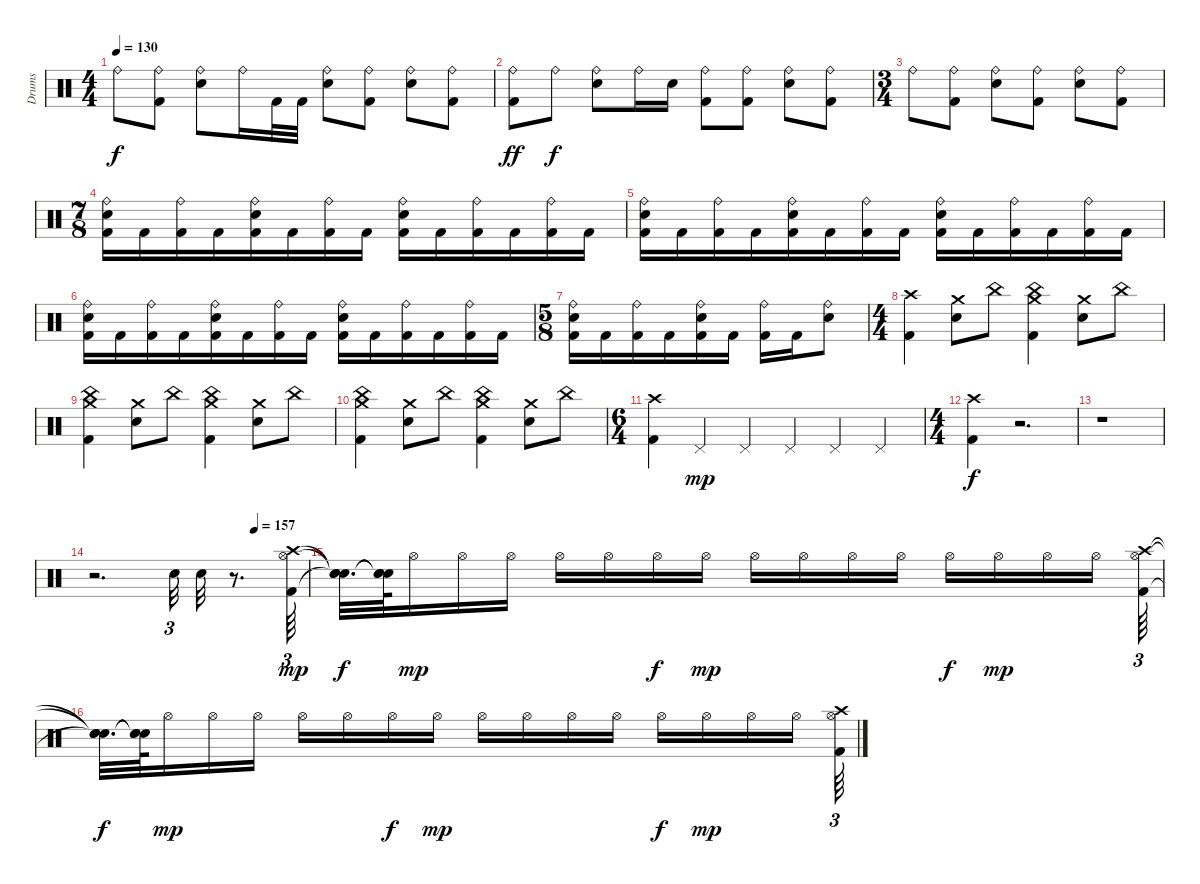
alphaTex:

\track ("Drums" "Drums") {instrument percussion}
\staff {score}
\articulation defaults
\ts (4 4)
\tempo 130
\clef neutral
\ks c "Ride (bell)".8{dy f}
("Kick (hit) 2" "Ride (bell)").8 ("Electric Snare (hit)" "Ride (bell)").8 "Ride (bell)".16 "Kick (hit) 2".32 "Kick (hit) 2".32 ("Electric Snare (hit)" "Ride (bell)").8 ("Kick (hit) 2" "Ride (bell)").8 ("Electric Snare (hit)" "Ride (bell)").8 ("Kick (hit) 2" "Ride (bell)").8 |
("Kick (hit) 2" "Ride (bell)").8{dy ff} "Ride (bell)".8{dy f} ("Electric Snare (hit)" "Ride (bell)").8 "Ride (bell)".16 "Electric Snare (hit)".16 ("Kick (hit) 2" "Ride (bell)").8 ("Kick (hit) 2" "Ride (bell)").8 ("Electric Snare (hit)" "Ride (bell)").8 ("Kick (hit) 2" "Ride (bell)").8 |
\ts (3 4)
"Ride (bell)".8 ("Kick (hit) 2" "Ride (bell)").8 ("Electric Snare (hit)" "Ride (bell)").8 ("Ride (bell)" "Kick (hit) 2").8 ("Electric Snare (hit)" "Ride (bell)").8 ("Kick (hit) 2" "Ride (bell)").8 |
\ts (7 8)
("Kick (hit) 2" "Electric Snare (hit)" "Ride (bell)").16 "Kick (hit) 2".16 ("Kick (hit) 2" "Ride (bell)").16 "Kick (hit) 2".16 ("Kick (hit) 2" "Electric Snare (hit)" "Ride (bell)").16 "Kick (hit) 2".16 ("Kick (hit) 2" "Ride (bell)").16 "Kick (hit) 2".16 ("Kick (hit) 2" "Electric Snare (hit)" "Ride (bell)").16 "Kick (hit) 2".16 ("Kick (hit) 2" "Ride (bell)").16 "Kick (hit) 2".16 ("Kick (hit) 2" "Ride (bell)").16 "Kick (hit) 2".16 |
("Kick (hit) 2" "Ride (bell)" "Electric Snare (hit)").16 "Kick (hit) 2".16 ("Kick (hit) 2" "Ride (bell)").16 "Kick (hit) 2".16 ("Kick (hit) 2" "Ride (bell)" "Electric Snare (hit)").16 "Kick (hit) 2".16 ("Kick (hit) 2" "Ride (bell)").16 "Kick (hit) 2".16 ("Kick (hit) 2" "Ride (bell)" "Electric Snare (hit)").16 "Kick (hit) 2".16 ("Kick (hit) 2" "Ride (bell)").16 "Kick (hit) 2".16 ("Kick (hit) 2" "Ride (bell)").16 "Kick (hit) 2".16 |
("Kick (hit) 2" "Ride (bell)" "Electric Snare (hit)").16 "Kick (hit) 2".16 ("Kick (hit) 2" "Ride (bell)").16 "Kick (hit) 2".16 ("Kick (hit) 2" "Electric Snare (hit)" "Ride (bell)").16 "Kick (hit) 2".16 ("Kick (hit) 2" "Ride (bell)").16 "Kick (hit) 2".16 ("Kick (hit) 2" "Electric Snare (hit)" "Ride (bell)").16 "Kick (hit) 2".16 ("Kick (hit) 2" "Ride (bell)").16 "Kick (hit) 2".16 ("Kick (hit) 2" "Ride (bell)").16 "Kick (hit) 2".16 |
\ts (5 8)
("Kick (hit) 2" "Electric Snare (hit)" "Ride (bell)").16 "Kick (hit) 2".16 ("Kick (hit) 2" "Ride (bell)").16 "Kick (hit) 2".16 ("Kick (hit) 2" "Ride (bell)" "Electric Snare (hit)").16 "Kick (hit) 2".16 ("Kick (hit) 2" "Ride (bell)").16 "Kick (hit) 2".16 ("Electric Snare (hit)" "Ride (bell)").8 |
\ts (4 4)
("Crash high (hit)" "Kick (hit) 2").4 ("Electric Snare (hit)" "Crash medium (hit)").8 "China (hit)".8 ("Kick (hit) 2" "Crash medium (hit)" "China (hit)").4 ("Electric Snare (hit)" "Crash medium (hit)").8 "China (hit)".8 |
("Kick (hit) 2" "Crash medium (hit)" "China (hit)").4 ("Electric Snare (hit)" "Crash medium (hit)").8 "China (hit)".8 ("Kick (hit) 2" "Crash medium (hit)" "China (hit)").4 ("Electric Snare (hit)" "Crash medium (hit)").8 "China (hit)".8 |
("Kick (hit) 2" "Crash medium (hit)" "China (hit)").4 ("Electric Snare (hit)" "Crash medium (hit)").8 "China (hit)".8 ("Kick (hit) 2" "Crash medium (hit)" "China (hit)").4 ("Electric Snare (hit)" "Crash medium (hit)").8 "China (hit)".8 |
\ts (6 4)
("Kick (hit) 2" "Crash high (hit)").4 "Pedal Hi-Hat (hit)".4{dy mp} "Pedal Hi-Hat (hit)".4 "Pedal Hi-Hat (hit)".4 "Pedal Hi-Hat (hit)".4 "Pedal Hi-Hat (hit)".4 |
\ts (4 4)
("Kick (hit) 2" "Crash high (hit)").4{dy f} r.2{d} |
r.1 |
\tempo (157 0.75)
r.2{d} "Electric Snare (hit)".32{tu (3 2)} "Electric Snare (hit)".32 r.8{d} ("Crash high (hit)" "Kick (hit) 2" "Hi-Hat (open)").64{tu (3 2) dy mp} |
("Snare (hit)"{t} "Snare (hit)"{t} "Snare (hit)"{t}).32{d dy f} ("Snare (hit)"{t} "Snare (hit)"{t} "Snare (hit)"{t}).64 "Hi-Hat (open)".16{dy mp} "Hi-Hat (open)".16 "Hi-Hat (open)".16 "Hi-Hat (open)".16 "Hi-Hat (open)".16 "Hi-Hat (open)".16{dy f} "Hi-Hat (open)".16{dy mp} "Hi-Hat (open)".16 "Hi-Hat (open)".16 "Hi-Hat (open)".16 "Hi-Hat (open)".16 "Hi-Hat (open)".16{dy f} "Hi-Hat (open)".16{dy mp} "Hi-Hat (open)".16 "Hi-Hat (open)".16 ("Crash high (hit)" "Kick (hit) 2" "Hi-Hat (open)").64{tu (3 2)} |
("Snare (hit)"{t} "Snare (hit)"{t} "Snare (hit)"{t}).32{d dy f} ("Snare (hit)"{t} "Snare (hit)"{t} "Snare (hit)"{t}).64 "Hi-Hat (open)".16{dy mp} "Hi-Hat (open)".16 "Hi-Hat (open)".16 "Hi-Hat (open)".16 "Hi-Hat (open)".16 "Hi-Hat (open)".16{dy f} "Hi-Hat (open)".16{dy mp} "Hi-Hat (open)".16 "Hi-Hat (open)".16 "Hi-Hat (open)".16 "Hi-Hat (open)".16 "Hi-Hat (open)".16{dy f} "Hi-Hat (open)".16{dy mp} "Hi-Hat (open)".16 "Hi-Hat (open)".16 ("Hi-Hat (open)" "Crash high (hit)" "Kick (hit) 2").64{tu (3 2)}
